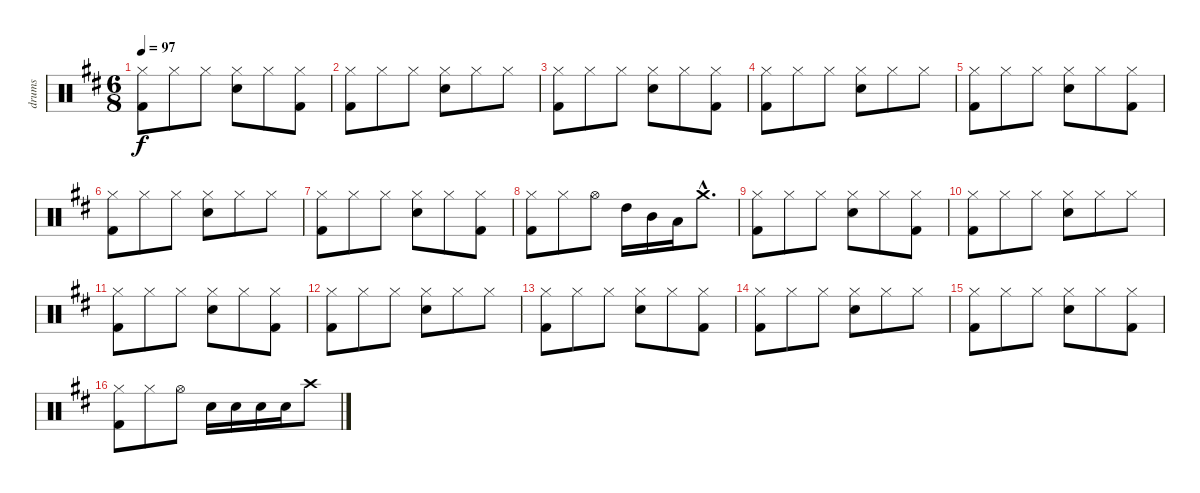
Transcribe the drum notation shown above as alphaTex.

\track ("drums" "drums") {instrument percussion}
\staff {score}
\articulation defaults
\ts (6 8)
\tempo 97
\clef neutral
\ks d
("Hi-Hat (closed)" "Kick (hit) 2").8{dy f} "Hi-Hat (closed)".8 "Hi-Hat (closed)".8 ("Hi-Hat (closed)" "Electric Snare (hit)").8 "Hi-Hat (closed)".8 ("Hi-Hat (closed)" "Kick (hit) 2").8 |
("Hi-Hat (closed)" "Kick (hit) 2").8 "Hi-Hat (closed)".8 "Hi-Hat (closed)".8 ("Hi-Hat (closed)" "Electric Snare (hit)").8 "Hi-Hat (closed)".8 "Hi-Hat (closed)".8 |
("Hi-Hat (closed)" "Kick (hit) 2").8 "Hi-Hat (closed)".8 "Hi-Hat (closed)".8 ("Hi-Hat (closed)" "Electric Snare (hit)").8 "Hi-Hat (closed)".8 ("Hi-Hat (closed)" "Kick (hit) 2").8 |
("Hi-Hat (closed)" "Kick (hit) 2").8 "Hi-Hat (closed)".8 "Hi-Hat (closed)".8 ("Hi-Hat (closed)" "Electric Snare (hit)").8 "Hi-Hat (closed)".8 "Hi-Hat (closed)".8 |
("Hi-Hat (closed)" "Kick (hit) 2").8 "Hi-Hat (closed)".8 "Hi-Hat (closed)".8 ("Hi-Hat (closed)" "Electric Snare (hit)").8 "Hi-Hat (closed)".8 ("Hi-Hat (closed)" "Kick (hit) 2").8 |
("Hi-Hat (closed)" "Kick (hit) 2").8 "Hi-Hat (closed)".8 "Hi-Hat (closed)".8 ("Hi-Hat (closed)" "Electric Snare (hit)").8 "Hi-Hat (closed)".8 "Hi-Hat (closed)".8 |
("Hi-Hat (closed)" "Kick (hit) 2").8 "Hi-Hat (closed)".8 "Hi-Hat (closed)".8 ("Hi-Hat (closed)" "Electric Snare (hit)").8 "Hi-Hat (closed)".8 ("Hi-Hat (closed)" "Kick (hit) 2").8 |
("Hi-Hat (closed)" "Kick (hit) 2").8 "Hi-Hat (closed)".8 "Hi-Hat (open)".8 "High Tom (hit)".16 "Mid Tom (hit)".16 "Low Tom (hit)".16 "Crash medium (hit)"{hac}.8{d} |
("Hi-Hat (closed)" "Kick (hit) 2").8 "Hi-Hat (closed)".8 "Hi-Hat (closed)".8 ("Hi-Hat (closed)" "Electric Snare (hit)").8 "Hi-Hat (closed)".8 ("Hi-Hat (closed)" "Kick (hit) 2").8 |
("Hi-Hat (closed)" "Kick (hit) 2").8 "Hi-Hat (closed)".8 "Hi-Hat (closed)".8 ("Hi-Hat (closed)" "Electric Snare (hit)").8 "Hi-Hat (closed)".8 "Hi-Hat (closed)".8 |
("Hi-Hat (closed)" "Kick (hit) 2").8 "Hi-Hat (closed)".8 "Hi-Hat (closed)".8 ("Hi-Hat (closed)" "Electric Snare (hit)").8 "Hi-Hat (closed)".8 ("Hi-Hat (closed)" "Kick (hit) 2").8 |
("Hi-Hat (closed)" "Kick (hit) 2").8 "Hi-Hat (closed)".8 "Hi-Hat (closed)".8 ("Hi-Hat (closed)" "Electric Snare (hit)").8 "Hi-Hat (closed)".8 "Hi-Hat (closed)".8 |
("Hi-Hat (closed)" "Kick (hit) 2").8 "Hi-Hat (closed)".8 "Hi-Hat (closed)".8 ("Hi-Hat (closed)" "Electric Snare (hit)").8 "Hi-Hat (closed)".8 ("Hi-Hat (closed)" "Kick (hit) 2").8 |
("Hi-Hat (closed)" "Kick (hit) 2").8 "Hi-Hat (closed)".8 "Hi-Hat (closed)".8 ("Hi-Hat (closed)" "Electric Snare (hit)").8 "Hi-Hat (closed)".8 "Hi-Hat (closed)".8 |
("Hi-Hat (closed)" "Kick (hit) 2").8 "Hi-Hat (closed)".8 "Hi-Hat (closed)".8 ("Hi-Hat (closed)" "Electric Snare (hit)").8 "Hi-Hat (closed)".8 ("Hi-Hat (closed)" "Kick (hit) 2").8 |
("Hi-Hat (closed)" "Kick (hit) 2").8 "Hi-Hat (closed)".8 "Hi-Hat (open)".8 "Snare (hit) 2".16 "Snare (hit) 2".16 "Snare (hit) 2".16 "Snare (hit) 2".16 "Crash high (hit)".8
